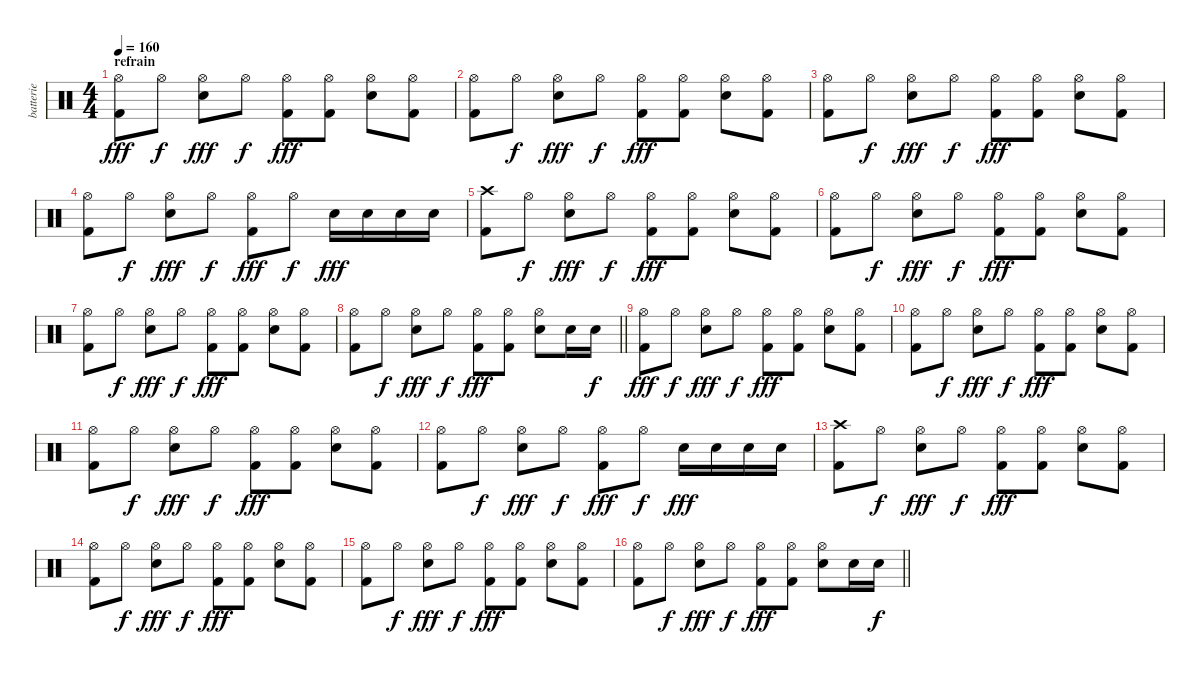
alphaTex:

\track ("batterie" "batterie") {instrument percussion}
\staff {score}
\articulation defaults
\ts (4 4)
\section ("" "refrain")
\tempo 160
\clef neutral
\ks c
("Hi-Hat (open)" "Kick (hit) 2").8{dy fff} "Hi-Hat (open)".8{dy f} ("Hi-Hat (open)" "Electric Snare (hit)").8{dy fff} "Hi-Hat (open)".8{dy f} ("Hi-Hat (open)" "Kick (hit) 2").8{dy fff} ("Hi-Hat (open)" "Kick (hit) 2").8 ("Hi-Hat (open)" "Electric Snare (hit)").8 ("Hi-Hat (open)" "Kick (hit) 2").8 |
("Hi-Hat (open)" "Kick (hit) 2").8 "Hi-Hat (open)".8{dy f} ("Hi-Hat (open)" "Electric Snare (hit)").8{dy fff} "Hi-Hat (open)".8{dy f} ("Hi-Hat (open)" "Kick (hit) 2").8{dy fff} ("Hi-Hat (open)" "Kick (hit) 2").8 ("Hi-Hat (open)" "Electric Snare (hit)").8 ("Hi-Hat (open)" "Kick (hit) 2").8 |
("Hi-Hat (open)" "Kick (hit) 2").8 "Hi-Hat (open)".8{dy f} ("Hi-Hat (open)" "Electric Snare (hit)").8{dy fff} "Hi-Hat (open)".8{dy f} ("Hi-Hat (open)" "Kick (hit) 2").8{dy fff} ("Hi-Hat (open)" "Kick (hit) 2").8 ("Hi-Hat (open)" "Electric Snare (hit)").8 ("Hi-Hat (open)" "Kick (hit) 2").8 |
("Hi-Hat (open)" "Kick (hit) 2").8 "Hi-Hat (open)".8{dy f} ("Hi-Hat (open)" "Electric Snare (hit)").8{dy fff} "Hi-Hat (open)".8{dy f} ("Hi-Hat (open)" "Kick (hit) 2").8{dy fff} "Hi-Hat (open)".8{dy f} "Electric Snare (hit)".16{dy fff} "Electric Snare (hit)".16 "Electric Snare (hit)".16 "Electric Snare (hit)".16 |
("Crash high (hit)" "Kick (hit) 2").8 "Hi-Hat (open)".8{dy f} ("Hi-Hat (open)" "Electric Snare (hit)").8{dy fff} "Hi-Hat (open)".8{dy f} ("Hi-Hat (open)" "Kick (hit) 2").8{dy fff} ("Hi-Hat (open)" "Kick (hit) 2").8 ("Hi-Hat (open)" "Electric Snare (hit)").8 ("Hi-Hat (open)" "Kick (hit) 2").8 |
("Hi-Hat (open)" "Kick (hit) 2").8 "Hi-Hat (open)".8{dy f} ("Hi-Hat (open)" "Electric Snare (hit)").8{dy fff} "Hi-Hat (open)".8{dy f} ("Hi-Hat (open)" "Kick (hit) 2").8{dy fff} ("Hi-Hat (open)" "Kick (hit) 2").8 ("Hi-Hat (open)" "Electric Snare (hit)").8 ("Hi-Hat (open)" "Kick (hit) 2").8 |
("Hi-Hat (open)" "Kick (hit) 2").8 "Hi-Hat (open)".8{dy f} ("Hi-Hat (open)" "Electric Snare (hit)").8{dy fff} "Hi-Hat (open)".8{dy f} ("Hi-Hat (open)" "Kick (hit) 2").8{dy fff} ("Hi-Hat (open)" "Kick (hit) 2").8 ("Hi-Hat (open)" "Electric Snare (hit)").8 ("Hi-Hat (open)" "Kick (hit) 2").8 |
\barLineRight lightlight
("Hi-Hat (open)" "Kick (hit) 2").8 "Hi-Hat (open)".8{dy f} ("Hi-Hat (open)" "Electric Snare (hit)").8{dy fff} "Hi-Hat (open)".8{dy f} ("Hi-Hat (open)" "Kick (hit) 2").8{dy fff} ("Hi-Hat (open)" "Kick (hit) 2").8 ("Hi-Hat (open)" "Electric Snare (hit)").8 "Electric Snare (hit)".16 "Electric Snare (hit)".16{dy f} |
("Hi-Hat (open)" "Kick (hit) 2").8{dy fff} "Hi-Hat (open)".8{dy f} ("Hi-Hat (open)" "Electric Snare (hit)").8{dy fff} "Hi-Hat (open)".8{dy f} ("Hi-Hat (open)" "Kick (hit) 2").8{dy fff} ("Hi-Hat (open)" "Kick (hit) 2").8 ("Hi-Hat (open)" "Electric Snare (hit)").8 ("Hi-Hat (open)" "Kick (hit) 2").8 |
("Hi-Hat (open)" "Kick (hit) 2").8 "Hi-Hat (open)".8{dy f} ("Hi-Hat (open)" "Electric Snare (hit)").8{dy fff} "Hi-Hat (open)".8{dy f} ("Hi-Hat (open)" "Kick (hit) 2").8{dy fff} ("Hi-Hat (open)" "Kick (hit) 2").8 ("Hi-Hat (open)" "Electric Snare (hit)").8 ("Hi-Hat (open)" "Kick (hit) 2").8 |
("Hi-Hat (open)" "Kick (hit) 2").8 "Hi-Hat (open)".8{dy f} ("Hi-Hat (open)" "Electric Snare (hit)").8{dy fff} "Hi-Hat (open)".8{dy f} ("Hi-Hat (open)" "Kick (hit) 2").8{dy fff} ("Hi-Hat (open)" "Kick (hit) 2").8 ("Hi-Hat (open)" "Electric Snare (hit)").8 ("Hi-Hat (open)" "Kick (hit) 2").8 |
("Hi-Hat (open)" "Kick (hit) 2").8 "Hi-Hat (open)".8{dy f} ("Hi-Hat (open)" "Electric Snare (hit)").8{dy fff} "Hi-Hat (open)".8{dy f} ("Hi-Hat (open)" "Kick (hit) 2").8{dy fff} "Hi-Hat (open)".8{dy f} "Electric Snare (hit)".16{dy fff} "Electric Snare (hit)".16 "Electric Snare (hit)".16 "Electric Snare (hit)".16 |
("Crash high (hit)" "Kick (hit) 2").8 "Hi-Hat (open)".8{dy f} ("Hi-Hat (open)" "Electric Snare (hit)").8{dy fff} "Hi-Hat (open)".8{dy f} ("Hi-Hat (open)" "Kick (hit) 2").8{dy fff} ("Hi-Hat (open)" "Kick (hit) 2").8 ("Hi-Hat (open)" "Electric Snare (hit)").8 ("Hi-Hat (open)" "Kick (hit) 2").8 |
("Hi-Hat (open)" "Kick (hit) 2").8 "Hi-Hat (open)".8{dy f} ("Hi-Hat (open)" "Electric Snare (hit)").8{dy fff} "Hi-Hat (open)".8{dy f} ("Hi-Hat (open)" "Kick (hit) 2").8{dy fff} ("Hi-Hat (open)" "Kick (hit) 2").8 ("Hi-Hat (open)" "Electric Snare (hit)").8 ("Hi-Hat (open)" "Kick (hit) 2").8 |
("Hi-Hat (open)" "Kick (hit) 2").8 "Hi-Hat (open)".8{dy f} ("Hi-Hat (open)" "Electric Snare (hit)").8{dy fff} "Hi-Hat (open)".8{dy f} ("Hi-Hat (open)" "Kick (hit) 2").8{dy fff} ("Hi-Hat (open)" "Kick (hit) 2").8 ("Hi-Hat (open)" "Electric Snare (hit)").8 ("Hi-Hat (open)" "Kick (hit) 2").8 |
\barLineRight lightlight
("Hi-Hat (open)" "Kick (hit) 2").8 "Hi-Hat (open)".8{dy f} ("Hi-Hat (open)" "Electric Snare (hit)").8{dy fff} "Hi-Hat (open)".8{dy f} ("Hi-Hat (open)" "Kick (hit) 2").8{dy fff} ("Hi-Hat (open)" "Kick (hit) 2").8 ("Hi-Hat (open)" "Electric Snare (hit)").8 "Electric Snare (hit)".16 "Electric Snare (hit)".16{dy f}
